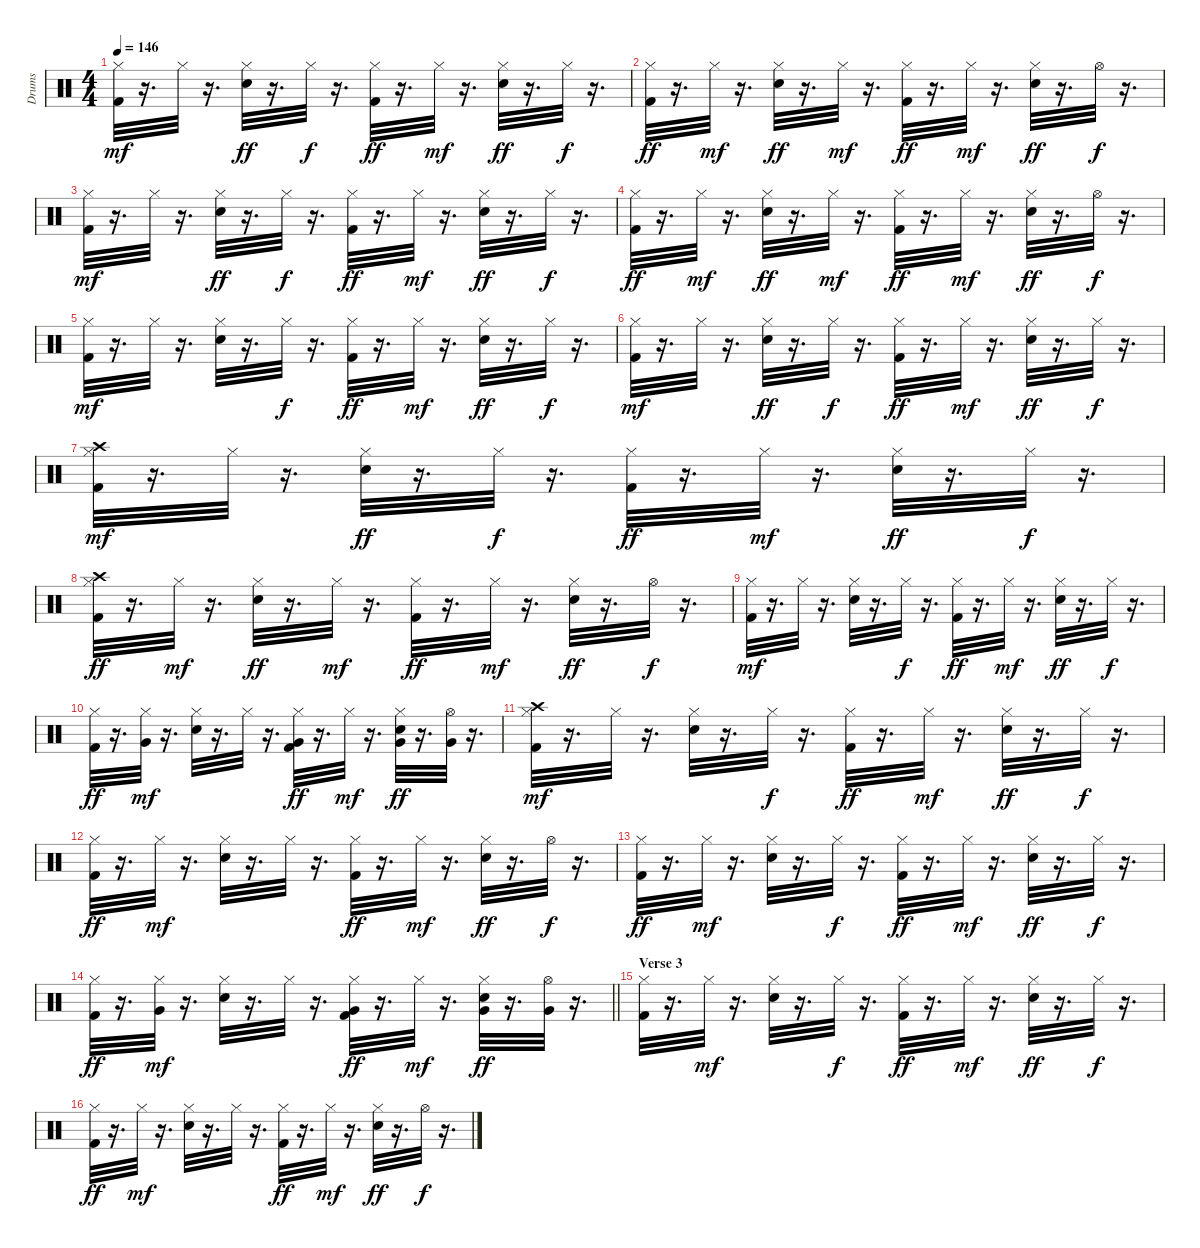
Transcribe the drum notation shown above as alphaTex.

\track ("Drums" "Drums") {instrument percussion}
\staff {score}
\articulation defaults
\ts (4 4)
\tempo 146
\clef neutral
\ks c
("Kick (hit) 2" "Hi-Hat (closed)").32{dy mf} r.16{d} "Hi-Hat (closed)".32 r.16{d} ("Hi-Hat (closed)" "Snare (hit) 2").32{dy ff} r.16{d} "Hi-Hat (closed)".32{dy f} r.16{d} ("Kick (hit) 2" "Hi-Hat (closed)").32{dy ff} r.16{d} "Hi-Hat (closed)".32{dy mf} r.16{d} ("Snare (hit) 2" "Hi-Hat (closed)").32{dy ff} r.16{d} "Hi-Hat (closed)".32{dy f} r.16{d} |
("Kick (hit) 2" "Hi-Hat (closed)").32{dy ff} r.16{d} "Hi-Hat (closed)".32{dy mf} r.16{d} ("Hi-Hat (closed)" "Snare (hit) 2").32{dy ff} r.16{d} "Hi-Hat (closed)".32{dy mf} r.16{d} ("Kick (hit) 2" "Hi-Hat (closed)").32{dy ff} r.16{d} "Hi-Hat (closed)".32{dy mf} r.16{d} ("Snare (hit) 2" "Hi-Hat (closed)").32{dy ff} r.16{d} "Hi-Hat (open)".32{dy f} r.16{d} |
("Kick (hit) 2" "Hi-Hat (closed)").32{dy mf} r.16{d} "Hi-Hat (closed)".32 r.16{d} ("Hi-Hat (closed)" "Snare (hit) 2").32{dy ff} r.16{d} "Hi-Hat (closed)".32{dy f} r.16{d} ("Kick (hit) 2" "Hi-Hat (closed)").32{dy ff} r.16{d} "Hi-Hat (closed)".32{dy mf} r.16{d} ("Snare (hit) 2" "Hi-Hat (closed)").32{dy ff} r.16{d} "Hi-Hat (closed)".32{dy f} r.16{d} |
("Kick (hit) 2" "Hi-Hat (closed)").32{dy ff} r.16{d} "Hi-Hat (closed)".32{dy mf} r.16{d} ("Hi-Hat (closed)" "Snare (hit) 2").32{dy ff} r.16{d} "Hi-Hat (closed)".32{dy mf} r.16{d} ("Kick (hit) 2" "Hi-Hat (closed)").32{dy ff} r.16{d} "Hi-Hat (closed)".32{dy mf} r.16{d} ("Hi-Hat (closed)" "Snare (hit) 2").32{dy ff} r.16{d} "Hi-Hat (open)".32{dy f} r.16{d} |
("Kick (hit) 2" "Hi-Hat (closed)").32{dy mf} r.16{d} "Hi-Hat (closed)".32 r.16{d} ("Snare (hit) 2" "Hi-Hat (closed)").32 r.16{d} "Hi-Hat (closed)".32{dy f} r.16{d} ("Kick (hit) 2" "Hi-Hat (closed)").32{dy ff} r.16{d} "Hi-Hat (closed)".32{dy mf} r.16{d} ("Hi-Hat (closed)" "Snare (hit) 2").32{dy ff} r.16{d} "Hi-Hat (closed)".32{dy f} r.16{d} |
("Kick (hit) 2" "Hi-Hat (closed)").32{dy mf} r.16{d} "Hi-Hat (closed)".32 r.16{d} ("Hi-Hat (closed)" "Snare (hit) 2").32{dy ff} r.16{d} "Hi-Hat (closed)".32{dy f} r.16{d} ("Kick (hit) 2" "Hi-Hat (closed)").32{dy ff} r.16{d} "Hi-Hat (closed)".32{dy mf} r.16{d} ("Hi-Hat (closed)" "Snare (hit) 2").32{dy ff} r.16{d} "Hi-Hat (closed)".32{dy f} r.16{d} |
("Kick (hit) 2" "Hi-Hat (closed)" "Crash high (hit)").32{dy mf} r.16{d} "Hi-Hat (closed)".32 r.16{d} ("Hi-Hat (closed)" "Snare (hit) 2").32{dy ff} r.16{d} "Hi-Hat (closed)".32{dy f} r.16{d} ("Kick (hit) 2" "Hi-Hat (closed)").32{dy ff} r.16{d} "Hi-Hat (closed)".32{dy mf} r.16{d} ("Snare (hit) 2" "Hi-Hat (closed)").32{dy ff} r.16{d} "Hi-Hat (closed)".32{dy f} r.16{d} |
("Kick (hit) 2" "Hi-Hat (closed)" "Crash high (hit)").32{dy ff} r.16{d} "Hi-Hat (closed)".32{dy mf} r.16{d} ("Hi-Hat (closed)" "Snare (hit) 2").32{dy ff} r.16{d} "Hi-Hat (closed)".32{dy mf} r.16{d} ("Kick (hit) 2" "Hi-Hat (closed)").32{dy ff} r.16{d} "Hi-Hat (closed)".32{dy mf} r.16{d} ("Hi-Hat (closed)" "Snare (hit) 2").32{dy ff} r.16{d} "Hi-Hat (open)".32{dy f} r.16{d} |
("Kick (hit) 2" "Hi-Hat (closed)").32{dy mf} r.16{d} "Hi-Hat (closed)".32 r.16{d} ("Snare (hit) 2" "Hi-Hat (closed)").32 r.16{d} "Hi-Hat (closed)".32{dy f} r.16{d} ("Hi-Hat (closed)" "Kick (hit) 2").32{dy ff} r.16{d} "Hi-Hat (closed)".32{dy mf} r.16{d} ("Hi-Hat (closed)" "Snare (hit) 2").32{dy ff} r.16{d} "Hi-Hat (closed)".32{dy f} r.16{d} |
("Kick (hit) 2" "Hi-Hat (closed)").32{dy ff} r.16{d} ("Hi-Hat (closed)" "Very Low Tom (hit)").32{dy mf} r.16{d} ("Snare (hit) 2" "Hi-Hat (closed)").32 r.16{d} "Hi-Hat (closed)".32 r.16{d} ("Hi-Hat (closed)" "Kick (hit) 2" "Very Low Tom (hit)").32{dy ff} r.16{d} "Hi-Hat (closed)".32{dy mf} r.16{d} ("Snare (hit) 2" "Hi-Hat (closed)" "Very Low Tom (hit)").32{dy ff} r.16{d} ("Very Low Tom (hit)" "Hi-Hat (open)").32 r.16{d} |
("Kick (hit) 2" "Hi-Hat (closed)" "Crash high (hit)").32{dy mf} r.16{d} "Hi-Hat (closed)".32 r.16{d} ("Snare (hit) 2" "Hi-Hat (closed)").32 r.16{d} "Hi-Hat (closed)".32{dy f} r.16{d} ("Kick (hit) 2" "Hi-Hat (closed)").32{dy ff} r.16{d} "Hi-Hat (closed)".32{dy mf} r.16{d} ("Snare (hit) 2" "Hi-Hat (closed)").32{dy ff} r.16{d} "Hi-Hat (closed)".32{dy f} r.16{d} |
("Kick (hit) 2" "Hi-Hat (closed)").32{dy ff} r.16{d} "Hi-Hat (closed)".32{dy mf} r.16{d} ("Snare (hit) 2" "Hi-Hat (closed)").32 r.16{d} "Hi-Hat (closed)".32 r.16{d} ("Hi-Hat (closed)" "Kick (hit) 2").32{dy ff} r.16{d} "Hi-Hat (closed)".32{dy mf} r.16{d} ("Snare (hit) 2" "Hi-Hat (closed)").32{dy ff} r.16{d} "Hi-Hat (open)".32{dy f} r.16{d} |
("Hi-Hat (closed)" "Kick (hit) 2").32{dy ff} r.16{d} "Hi-Hat (closed)".32{dy mf} r.16{d} ("Snare (hit) 2" "Hi-Hat (closed)").32 r.16{d} "Hi-Hat (closed)".32{dy f} r.16{d} ("Hi-Hat (closed)" "Kick (hit) 2").32{dy ff} r.16{d} "Hi-Hat (closed)".32{dy mf} r.16{d} ("Hi-Hat (closed)" "Snare (hit) 2").32{dy ff} r.16{d} "Hi-Hat (closed)".32{dy f} r.16{d} |
\barLineRight lightlight
("Hi-Hat (closed)" "Kick (hit) 2").32{dy ff} r.16{d} ("Hi-Hat (closed)" "Very Low Tom (hit)").32{dy mf} r.16{d} ("Snare (hit) 2" "Hi-Hat (closed)").32 r.16{d} "Hi-Hat (closed)".32 r.16{d} ("Kick (hit) 2" "Hi-Hat (closed)" "Very Low Tom (hit)").32{dy ff} r.16{d} "Hi-Hat (closed)".32{dy mf} r.16{d} ("Snare (hit) 2" "Hi-Hat (closed)" "Very Low Tom (hit)").32{dy ff} r.16{d} ("Very Low Tom (hit)" "Hi-Hat (open)").32 r.16{d} |
\section ("" "Verse 3")
("Hi-Hat (closed)" "Kick (hit) 2").32 r.16{d} "Hi-Hat (closed)".32{dy mf} r.16{d} ("Snare (hit) 2" "Hi-Hat (closed)").32 r.16{d} "Hi-Hat (closed)".32{dy f} r.16{d} ("Hi-Hat (closed)" "Kick (hit) 2").32{dy ff} r.16{d} "Hi-Hat (closed)".32{dy mf} r.16{d} ("Snare (hit) 2" "Hi-Hat (closed)").32{dy ff} r.16{d} "Hi-Hat (closed)".32{dy f} r.16{d} |
("Hi-Hat (closed)" "Kick (hit) 2").32{dy ff} r.16{d} "Hi-Hat (closed)".32{dy mf} r.16{d} ("Snare (hit) 2" "Hi-Hat (closed)").32 r.16{d} "Hi-Hat (closed)".32 r.16{d} ("Kick (hit) 2" "Hi-Hat (closed)").32{dy ff} r.16{d} "Hi-Hat (closed)".32{dy mf} r.16{d} ("Hi-Hat (closed)" "Snare (hit) 2").32{dy ff} r.16{d} "Hi-Hat (open)".32{dy f} r.16{d}
